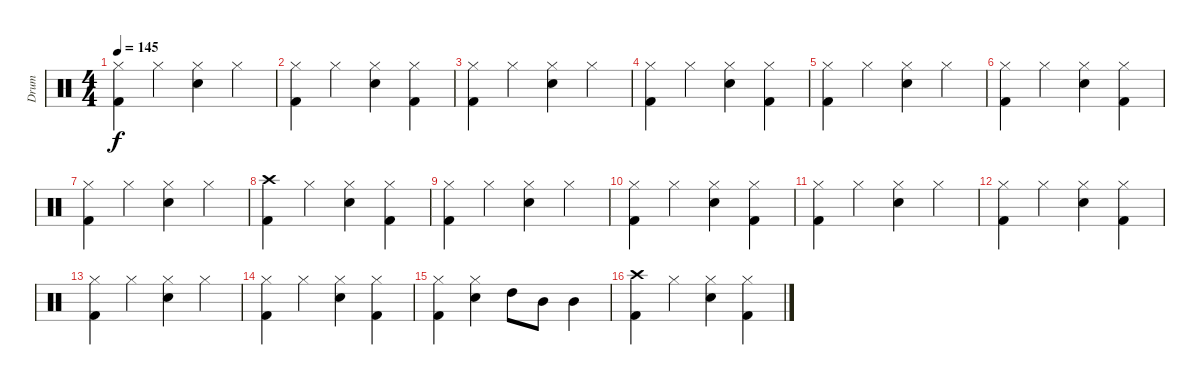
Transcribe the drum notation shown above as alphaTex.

\track ("Drum" "Drum") {instrument percussion}
\staff {score}
\articulation defaults
\ts (4 4)
\tempo 145
\clef neutral
\ks c
("Hi-Hat (closed)" "Kick (hit) 2").4{dy f} "Hi-Hat (closed)".4 ("Hi-Hat (closed)" "Snare (hit) 2").4 "Hi-Hat (closed)".4 |
("Hi-Hat (closed)" "Kick (hit) 2").4 "Hi-Hat (closed)".4 ("Hi-Hat (closed)" "Snare (hit) 2").4 ("Hi-Hat (closed)" "Kick (hit) 2").4 |
("Hi-Hat (closed)" "Kick (hit) 2").4 "Hi-Hat (closed)".4 ("Hi-Hat (closed)" "Snare (hit) 2").4 "Hi-Hat (closed)".4 |
("Hi-Hat (closed)" "Kick (hit) 2").4 "Hi-Hat (closed)".4 ("Hi-Hat (closed)" "Snare (hit) 2").4 ("Hi-Hat (closed)" "Kick (hit) 2").4 |
("Hi-Hat (closed)" "Kick (hit) 2").4 "Hi-Hat (closed)".4 ("Hi-Hat (closed)" "Snare (hit) 2").4 "Hi-Hat (closed)".4 |
("Hi-Hat (closed)" "Kick (hit) 2").4 "Hi-Hat (closed)".4 ("Hi-Hat (closed)" "Snare (hit) 2").4 ("Hi-Hat (closed)" "Kick (hit) 2").4 |
("Hi-Hat (closed)" "Kick (hit) 2").4 "Hi-Hat (closed)".4 ("Hi-Hat (closed)" "Snare (hit) 2").4 "Hi-Hat (closed)".4 |
("Crash high (hit)" "Kick (hit) 2").4 "Hi-Hat (closed)".4 ("Hi-Hat (closed)" "Snare (hit) 2").4 ("Hi-Hat (closed)" "Kick (hit) 2").4 |
("Hi-Hat (closed)" "Kick (hit) 2").4 "Hi-Hat (closed)".4 ("Hi-Hat (closed)" "Snare (hit) 2").4 "Hi-Hat (closed)".4 |
("Hi-Hat (closed)" "Kick (hit) 2").4 "Hi-Hat (closed)".4 ("Hi-Hat (closed)" "Snare (hit) 2").4 ("Hi-Hat (closed)" "Kick (hit) 2").4 |
("Hi-Hat (closed)" "Kick (hit) 2").4 "Hi-Hat (closed)".4 ("Hi-Hat (closed)" "Snare (hit) 2").4 "Hi-Hat (closed)".4 |
("Hi-Hat (closed)" "Kick (hit) 2").4 "Hi-Hat (closed)".4 ("Hi-Hat (closed)" "Snare (hit) 2").4 ("Hi-Hat (closed)" "Kick (hit) 2").4 |
("Hi-Hat (closed)" "Kick (hit) 2").4 "Hi-Hat (closed)".4 ("Hi-Hat (closed)" "Snare (hit) 2").4 "Hi-Hat (closed)".4 |
("Hi-Hat (closed)" "Kick (hit) 2").4 "Hi-Hat (closed)".4 ("Hi-Hat (closed)" "Snare (hit) 2").4 ("Hi-Hat (closed)" "Kick (hit) 2").4 |
("Hi-Hat (closed)" "Kick (hit) 2").4 ("Hi-Hat (closed)" "Snare (hit) 2").4 "High Tom (hit)".8 "Mid Tom (hit)".8 "Mid Tom (hit)".4 |
("Crash high (hit)" "Kick (hit) 2").4 "Hi-Hat (closed)".4 ("Hi-Hat (closed)" "Snare (hit) 2").4 ("Hi-Hat (closed)" "Kick (hit) 2").4
